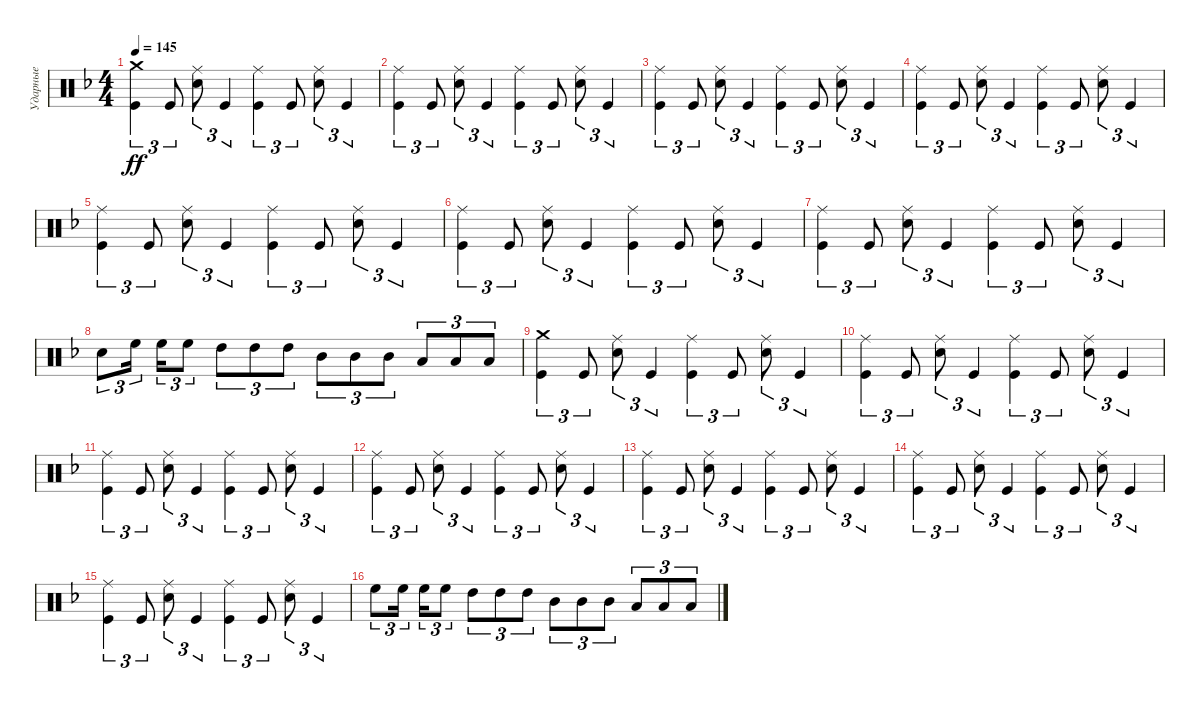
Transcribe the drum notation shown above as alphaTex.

\track ("Ударные" "Ударные") {instrument percussion}
\staff {score}
\articulation defaults
\ts (4 4)
\tempo 145
\clef neutral
\ks dminor
("Crash medium (hit)" "Kick (hit)").4{tu (3 2) dy ff} "Kick (hit)".8{tu (3 2)} ("Ride (middle)" "Electric Snare (hit)").8{tu (3 2)} "Kick (hit)".4{tu (3 2)} ("Ride (middle)" "Kick (hit)").4{tu (3 2)} "Kick (hit)".8{tu (3 2)} ("Ride (middle)" "Electric Snare (hit)").8{tu (3 2)} "Kick (hit)".4{tu (3 2)} |
("Ride (middle)" "Kick (hit)").4{tu (3 2)} "Kick (hit)".8{tu (3 2)} ("Ride (middle)" "Electric Snare (hit)").8{tu (3 2)} "Kick (hit)".4{tu (3 2)} ("Ride (middle)" "Kick (hit)").4{tu (3 2)} "Kick (hit)".8{tu (3 2)} ("Ride (middle)" "Electric Snare (hit)").8{tu (3 2)} "Kick (hit)".4{tu (3 2)} |
("Ride (middle)" "Kick (hit)").4{tu (3 2)} "Kick (hit)".8{tu (3 2)} ("Ride (middle)" "Electric Snare (hit)").8{tu (3 2)} "Kick (hit)".4{tu (3 2)} ("Ride (middle)" "Kick (hit)").4{tu (3 2)} "Kick (hit)".8{tu (3 2)} ("Ride (middle)" "Electric Snare (hit)").8{tu (3 2)} "Kick (hit)".4{tu (3 2)} |
("Ride (middle)" "Kick (hit)").4{tu (3 2)} "Kick (hit)".8{tu (3 2)} ("Ride (middle)" "Electric Snare (hit)").8{tu (3 2)} "Kick (hit)".4{tu (3 2)} ("Ride (middle)" "Kick (hit)").4{tu (3 2)} "Kick (hit)".8{tu (3 2)} ("Ride (middle)" "Electric Snare (hit)").8{tu (3 2)} "Kick (hit)".4{tu (3 2)} |
("Ride (middle)" "Kick (hit)").4{tu (3 2)} "Kick (hit)".8{tu (3 2)} ("Ride (middle)" "Electric Snare (hit)").8{tu (3 2)} "Kick (hit)".4{tu (3 2)} ("Ride (middle)" "Kick (hit)").4{tu (3 2)} "Kick (hit)".8{tu (3 2)} ("Ride (middle)" "Electric Snare (hit)").8{tu (3 2)} "Kick (hit)".4{tu (3 2)} |
("Ride (middle)" "Kick (hit)").4{tu (3 2)} "Kick (hit)".8{tu (3 2)} ("Ride (middle)" "Electric Snare (hit)").8{tu (3 2)} "Kick (hit)".4{tu (3 2)} ("Ride (middle)" "Kick (hit)").4{tu (3 2)} "Kick (hit)".8{tu (3 2)} ("Ride (middle)" "Electric Snare (hit)").8{tu (3 2)} "Kick (hit)".4{tu (3 2)} |
("Ride (middle)" "Kick (hit)").4{tu (3 2)} "Kick (hit)".8{tu (3 2)} ("Ride (middle)" "Electric Snare (hit)").8{tu (3 2)} "Kick (hit)".4{tu (3 2)} ("Ride (middle)" "Kick (hit)").4{tu (3 2)} "Kick (hit)".8{tu (3 2)} ("Ride (middle)" "Electric Snare (hit)").8{tu (3 2)} "Kick (hit)".4{tu (3 2)} |
"Electric Snare (hit)".8{tu (3 2)} "High Floor Tom (hit)".16{tu (3 2) beam splitsecondary} "High Floor Tom (hit)".16{tu (3 2)} "High Floor Tom (hit)".8{tu (3 2)} "High Tom (hit)".8{tu (3 2)} "High Tom (hit)".8{tu (3 2)} "High Tom (hit)".8{tu (3 2)} "Mid Tom (hit)".8{tu (3 2)} "Mid Tom (hit)".8{tu (3 2)} "Mid Tom (hit)".8{tu (3 2)} "Low Tom (hit)".8{tu (3 2)} "Low Tom (hit)".8{tu (3 2)} "Low Tom (hit)".8{tu (3 2)} |
("Crash medium (hit)" "Kick (hit)").4{tu (3 2)} "Kick (hit)".8{tu (3 2)} ("Ride (middle)" "Electric Snare (hit)").8{tu (3 2)} "Kick (hit)".4{tu (3 2)} ("Ride (middle)" "Kick (hit)").4{tu (3 2)} "Kick (hit)".8{tu (3 2)} ("Ride (middle)" "Electric Snare (hit)").8{tu (3 2)} "Kick (hit)".4{tu (3 2)} |
("Ride (middle)" "Kick (hit)").4{tu (3 2)} "Kick (hit)".8{tu (3 2)} ("Ride (middle)" "Electric Snare (hit)").8{tu (3 2)} "Kick (hit)".4{tu (3 2)} ("Ride (middle)" "Kick (hit)").4{tu (3 2)} "Kick (hit)".8{tu (3 2)} ("Ride (middle)" "Electric Snare (hit)").8{tu (3 2)} "Kick (hit)".4{tu (3 2)} |
("Ride (middle)" "Kick (hit)").4{tu (3 2)} "Kick (hit)".8{tu (3 2)} ("Ride (middle)" "Electric Snare (hit)").8{tu (3 2)} "Kick (hit)".4{tu (3 2)} ("Ride (middle)" "Kick (hit)").4{tu (3 2)} "Kick (hit)".8{tu (3 2)} ("Ride (middle)" "Electric Snare (hit)").8{tu (3 2)} "Kick (hit)".4{tu (3 2)} |
("Ride (middle)" "Kick (hit)").4{tu (3 2)} "Kick (hit)".8{tu (3 2)} ("Ride (middle)" "Electric Snare (hit)").8{tu (3 2)} "Kick (hit)".4{tu (3 2)} ("Ride (middle)" "Kick (hit)").4{tu (3 2)} "Kick (hit)".8{tu (3 2)} ("Ride (middle)" "Electric Snare (hit)").8{tu (3 2)} "Kick (hit)".4{tu (3 2)} |
("Ride (middle)" "Kick (hit)").4{tu (3 2)} "Kick (hit)".8{tu (3 2)} ("Ride (middle)" "Electric Snare (hit)").8{tu (3 2)} "Kick (hit)".4{tu (3 2)} ("Ride (middle)" "Kick (hit)").4{tu (3 2)} "Kick (hit)".8{tu (3 2)} ("Ride (middle)" "Electric Snare (hit)").8{tu (3 2)} "Kick (hit)".4{tu (3 2)} |
("Ride (middle)" "Kick (hit)").4{tu (3 2)} "Kick (hit)".8{tu (3 2)} ("Ride (middle)" "Electric Snare (hit)").8{tu (3 2)} "Kick (hit)".4{tu (3 2)} ("Ride (middle)" "Kick (hit)").4{tu (3 2)} "Kick (hit)".8{tu (3 2)} ("Ride (middle)" "Electric Snare (hit)").8{tu (3 2)} "Kick (hit)".4{tu (3 2)} |
("Ride (middle)" "Kick (hit)").4{tu (3 2)} "Kick (hit)".8{tu (3 2)} ("Ride (middle)" "Electric Snare (hit)").8{tu (3 2)} "Kick (hit)".4{tu (3 2)} ("Ride (middle)" "Kick (hit)").4{tu (3 2)} "Kick (hit)".8{tu (3 2)} ("Ride (middle)" "Electric Snare (hit)").8{tu (3 2)} "Kick (hit)".4{tu (3 2)} |
"High Floor Tom (hit)".8{tu (3 2)} "High Floor Tom (hit)".16{tu (3 2) beam splitsecondary} "High Floor Tom (hit)".16{tu (3 2)} "High Floor Tom (hit)".8{tu (3 2)} "High Tom (hit)".8{tu (3 2)} "High Tom (hit)".8{tu (3 2)} "High Tom (hit)".8{tu (3 2)} "Mid Tom (hit)".8{tu (3 2)} "Mid Tom (hit)".8{tu (3 2)} "Mid Tom (hit)".8{tu (3 2)} "Low Tom (hit)".8{tu (3 2)} "Low Tom (hit)".8{tu (3 2)} "Low Tom (hit)".8{tu (3 2)}
